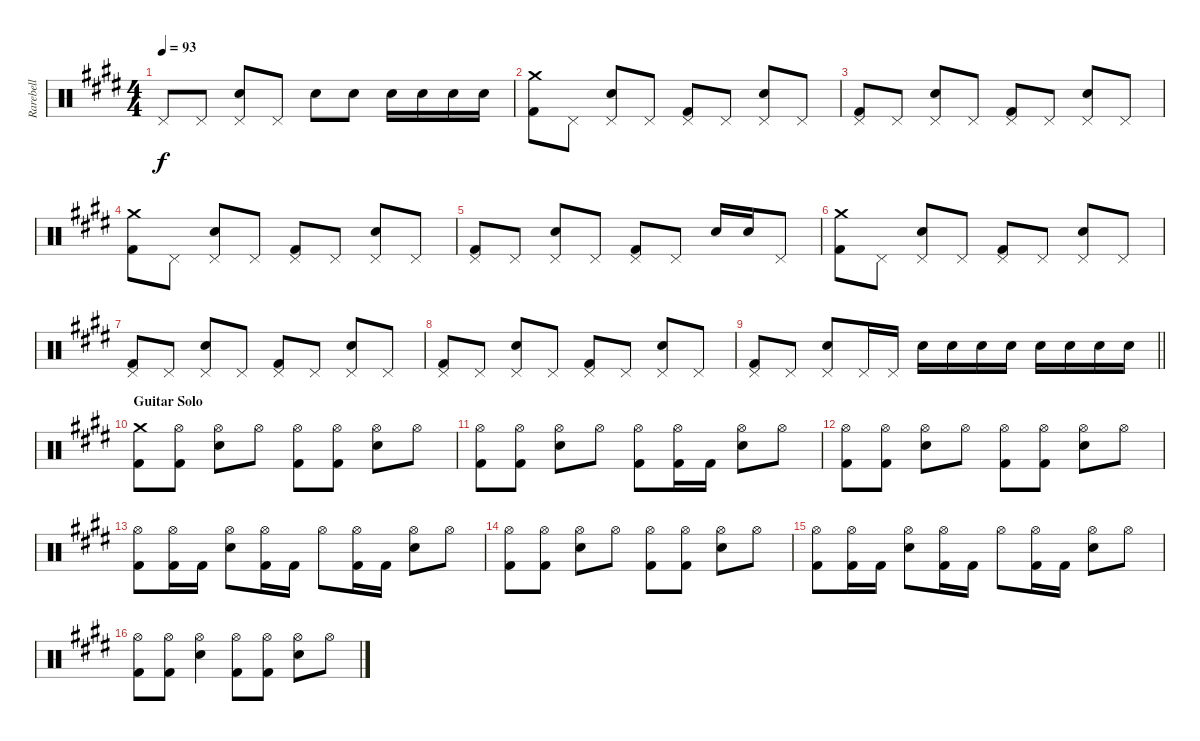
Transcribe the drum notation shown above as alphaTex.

\track ("Rarebell" "Rarebell") {instrument percussion}
\staff {score}
\articulation defaults
\ts (4 4)
\tempo 93
\clef neutral
\ks e "Pedal Hi-Hat (hit)".8{dy f} "Pedal Hi-Hat (hit)".8
("Pedal Hi-Hat (hit)" "Snare (hit) 2").8 "Pedal Hi-Hat (hit)".8 "Snare (hit) 2".8 "Snare (hit) 2".8 "Snare (hit) 2".16 "Snare (hit) 2".16 "Snare (hit) 2".16 "Snare (hit) 2".16 |
("Crash medium (hit)" "Kick (hit) 2").8 "Pedal Hi-Hat (hit)".8 ("Pedal Hi-Hat (hit)" "Snare (hit) 2").8 "Pedal Hi-Hat (hit)".8 ("Pedal Hi-Hat (hit)" "Kick (hit) 2").8 "Pedal Hi-Hat (hit)".8 ("Pedal Hi-Hat (hit)" "Snare (hit) 2").8 "Pedal Hi-Hat (hit)".8 |
("Pedal Hi-Hat (hit)" "Kick (hit) 2").8 "Pedal Hi-Hat (hit)".8 ("Pedal Hi-Hat (hit)" "Snare (hit) 2").8 "Pedal Hi-Hat (hit)".8 ("Pedal Hi-Hat (hit)" "Kick (hit) 2").8 "Pedal Hi-Hat (hit)".8 ("Pedal Hi-Hat (hit)" "Snare (hit) 2").8 "Pedal Hi-Hat (hit)".8 |
("Crash medium (hit)" "Kick (hit) 2").8 "Pedal Hi-Hat (hit)".8 ("Pedal Hi-Hat (hit)" "Snare (hit) 2").8 "Pedal Hi-Hat (hit)".8 ("Pedal Hi-Hat (hit)" "Kick (hit) 2").8 "Pedal Hi-Hat (hit)".8 ("Pedal Hi-Hat (hit)" "Snare (hit) 2").8 "Pedal Hi-Hat (hit)".8 |
("Pedal Hi-Hat (hit)" "Kick (hit) 2").8 "Pedal Hi-Hat (hit)".8 ("Pedal Hi-Hat (hit)" "Snare (hit) 2").8 "Pedal Hi-Hat (hit)".8 ("Pedal Hi-Hat (hit)" "Kick (hit) 2").8 "Pedal Hi-Hat (hit)".8 "Snare (hit) 2".16 "Snare (hit) 2".16 "Pedal Hi-Hat (hit)".8 |
("Crash medium (hit)" "Kick (hit) 2").8 "Pedal Hi-Hat (hit)".8 ("Pedal Hi-Hat (hit)" "Snare (hit) 2").8 "Pedal Hi-Hat (hit)".8 ("Pedal Hi-Hat (hit)" "Kick (hit) 2").8 "Pedal Hi-Hat (hit)".8 ("Pedal Hi-Hat (hit)" "Snare (hit) 2").8 "Pedal Hi-Hat (hit)".8 |
("Pedal Hi-Hat (hit)" "Kick (hit) 2").8 "Pedal Hi-Hat (hit)".8 ("Pedal Hi-Hat (hit)" "Snare (hit) 2").8 "Pedal Hi-Hat (hit)".8 ("Pedal Hi-Hat (hit)" "Kick (hit) 2").8 "Pedal Hi-Hat (hit)".8 ("Pedal Hi-Hat (hit)" "Snare (hit) 2").8 "Pedal Hi-Hat (hit)".8 |
("Pedal Hi-Hat (hit)" "Kick (hit) 2").8 "Pedal Hi-Hat (hit)".8 ("Pedal Hi-Hat (hit)" "Snare (hit) 2").8 "Pedal Hi-Hat (hit)".8 ("Pedal Hi-Hat (hit)" "Kick (hit) 2").8 "Pedal Hi-Hat (hit)".8 ("Pedal Hi-Hat (hit)" "Snare (hit) 2").8 "Pedal Hi-Hat (hit)".8 |
\barLineRight lightlight
("Pedal Hi-Hat (hit)" "Kick (hit) 2").8 "Pedal Hi-Hat (hit)".8 ("Pedal Hi-Hat (hit)" "Snare (hit) 2").8 "Pedal Hi-Hat (hit)".16 "Pedal Hi-Hat (hit)".16 "Snare (hit) 2".16 "Snare (hit) 2".16 "Snare (hit) 2".16 "Snare (hit) 2".16 "Snare (hit) 2".16 "Snare (hit) 2".16 "Snare (hit) 2".16 "Snare (hit) 2".16 |
\section ("" "Guitar Solo")
("Crash medium (hit)" "Kick (hit) 2").8 ("Hi-Hat (open)" "Kick (hit) 2").8 ("Hi-Hat (open)" "Snare (hit) 2").8 "Hi-Hat (open)".8 ("Hi-Hat (open)" "Kick (hit) 2").8 ("Hi-Hat (open)" "Kick (hit) 2").8 ("Hi-Hat (open)" "Snare (hit) 2").8 "Hi-Hat (open)".8 |
("Hi-Hat (open)" "Kick (hit) 2").8 ("Hi-Hat (open)" "Kick (hit) 2").8 ("Hi-Hat (open)" "Snare (hit) 2").8 "Hi-Hat (open)".8 ("Hi-Hat (open)" "Kick (hit) 2").8 ("Hi-Hat (open)" "Kick (hit) 2").16 "Kick (hit) 2".16 ("Hi-Hat (open)" "Snare (hit) 2").8 "Hi-Hat (open)".8 |
("Hi-Hat (open)" "Kick (hit) 2").8 ("Hi-Hat (open)" "Kick (hit) 2").8 ("Hi-Hat (open)" "Snare (hit) 2").8 "Hi-Hat (open)".8 ("Hi-Hat (open)" "Kick (hit) 2").8 ("Hi-Hat (open)" "Kick (hit) 2").8 ("Hi-Hat (open)" "Snare (hit) 2").8 "Hi-Hat (open)".8 |
("Hi-Hat (open)" "Kick (hit) 2").8 ("Hi-Hat (open)" "Kick (hit) 2").16 "Kick (hit) 2".16 ("Hi-Hat (open)" "Snare (hit) 2").8 ("Hi-Hat (open)" "Kick (hit) 2").16 "Kick (hit) 2".16 "Hi-Hat (open)".8 ("Hi-Hat (open)" "Kick (hit) 2").16 "Kick (hit) 2".16 ("Hi-Hat (open)" "Snare (hit) 2").8 "Hi-Hat (open)".8 |
("Hi-Hat (open)" "Kick (hit) 2").8 ("Hi-Hat (open)" "Kick (hit) 2").8 ("Hi-Hat (open)" "Snare (hit) 2").8 "Hi-Hat (open)".8 ("Hi-Hat (open)" "Kick (hit) 2").8 ("Hi-Hat (open)" "Kick (hit) 2").8 ("Hi-Hat (open)" "Snare (hit) 2").8 "Hi-Hat (open)".8 |
("Hi-Hat (open)" "Kick (hit) 2").8 ("Hi-Hat (open)" "Kick (hit) 2").16 "Kick (hit) 2".16 ("Hi-Hat (open)" "Snare (hit) 2").8 ("Hi-Hat (open)" "Kick (hit) 2").16 "Kick (hit) 2".16 "Hi-Hat (open)".8 ("Hi-Hat (open)" "Kick (hit) 2").16 "Kick (hit) 2".16 ("Hi-Hat (open)" "Snare (hit) 2").8 "Hi-Hat (open)".8 |
("Hi-Hat (open)" "Kick (hit) 2").8 ("Hi-Hat (open)" "Kick (hit) 2").8 ("Hi-Hat (open)" "Snare (hit) 2").4 ("Hi-Hat (open)" "Kick (hit) 2").8 ("Hi-Hat (open)" "Kick (hit) 2").8 ("Hi-Hat (open)" "Snare (hit) 2").8 "Hi-Hat (open)".8
